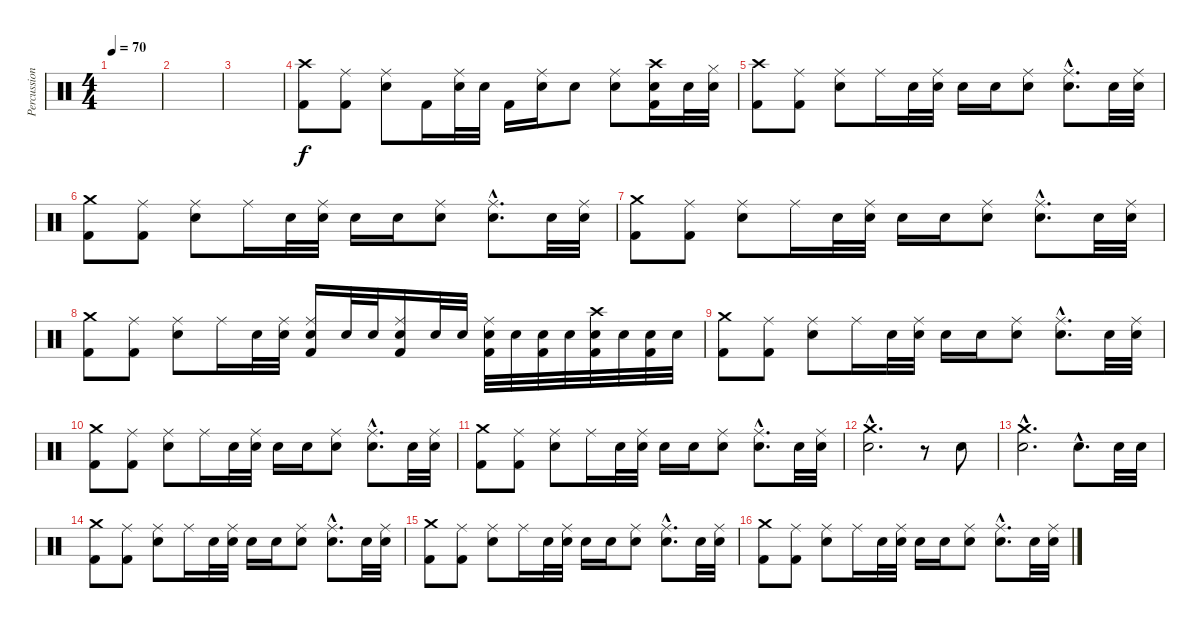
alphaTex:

\track ("Percussion" "Percussion") {instrument percussion}
\staff {score}
\articulation defaults
\ts (4 4)
\tempo 70
\clef neutral
\ks c
|
|
|
("Crash high (hit)" "Kick (hit) 2").8 ("Ride (middle)" "Kick (hit) 2").8 ("Ride (middle)" "Electric Snare (hit)").8 "Kick (hit) 2".16 ("Ride (middle)" "Electric Snare (hit)").32 "Electric Snare (hit)".32 "Kick (hit) 2".16 ("Ride (middle)" "Electric Snare (hit)").16 "Electric Snare (hit)".8 ("Ride (middle)" "Electric Snare (hit)").8 ("Crash high (hit)" "Electric Snare (hit)" "Kick (hit) 2").16 "Electric Snare (hit)".32 ("Hi-Hat (closed)" "Electric Snare (hit)").32 |
("Crash high (hit)" "Kick (hit) 2").8 ("Ride (middle)" "Kick (hit) 2").8 ("Ride (middle)" "Electric Snare (hit)").8 "Ride (middle)".16 "Electric Snare (hit)".32 ("Ride (middle)" "Electric Snare (hit)").32 "Electric Snare (hit)".16 "Electric Snare (hit)".16 ("Ride (middle)" "Electric Snare (hit)").8 ("Ride (middle)"{hac} "Electric Snare (hit)"{hac}).8{d} "Electric Snare (hit)".32 ("Ride (middle)" "Electric Snare (hit)").32 |
("Crash medium (hit)" "Kick (hit) 2").8 ("Ride (middle)" "Kick (hit) 2").8 ("Ride (middle)" "Electric Snare (hit)").8 "Ride (middle)".16 "Electric Snare (hit)".32 ("Ride (middle)" "Electric Snare (hit)").32 "Electric Snare (hit)".16 "Electric Snare (hit)".16 ("Ride (middle)" "Electric Snare (hit)").8 ("Ride (middle)"{hac} "Electric Snare (hit)"{hac}).8{d} "Electric Snare (hit)".32 ("Ride (middle)" "Electric Snare (hit)").32 |
("Crash medium (hit)" "Kick (hit) 2").8 ("Ride (middle)" "Kick (hit) 2").8 ("Ride (middle)" "Electric Snare (hit)").8 "Ride (middle)".16 "Electric Snare (hit)".32 ("Ride (middle)" "Electric Snare (hit)").32 "Electric Snare (hit)".16 "Electric Snare (hit)".16 ("Ride (middle)" "Electric Snare (hit)").8 ("Ride (middle)"{hac} "Electric Snare (hit)"{hac}).8{d} "Electric Snare (hit)".32 ("Ride (middle)" "Electric Snare (hit)").32 |
("Crash medium (hit)" "Kick (hit) 2").8 ("Ride (middle)" "Kick (hit) 2").8 ("Ride (middle)" "Electric Snare (hit)").8 "Ride (middle)".16 "Electric Snare (hit)".32 ("Ride (middle)" "Electric Snare (hit)").32 ("Ride (middle)" "Electric Snare (hit)" "Kick (hit) 2").16 "Electric Snare (hit)".32 "Electric Snare (hit)".32 ("Ride (middle)" "Electric Snare (hit)" "Kick (hit) 2").16 "Electric Snare (hit)".32 "Electric Snare (hit)".32 ("Ride (middle)" "Electric Snare (hit)" "Kick (hit) 2").32 "Electric Snare (hit)".32 ("Electric Snare (hit)" "Kick (hit) 2").32 "Electric Snare (hit)".32 ("Crash high (hit)" "Electric Snare (hit)" "Kick (hit) 2").32 "Electric Snare (hit)".32 ("Electric Snare (hit)" "Kick (hit) 2").32 "Electric Snare (hit)".32 |
("Crash medium (hit)" "Kick (hit) 2").8 ("Ride (middle)" "Kick (hit) 2").8 ("Ride (middle)" "Electric Snare (hit)").8 "Ride (middle)".16 "Electric Snare (hit)".32 ("Ride (middle)" "Electric Snare (hit)").32 "Electric Snare (hit)".16 "Electric Snare (hit)".16 ("Ride (middle)" "Electric Snare (hit)").8 ("Ride (middle)"{hac} "Electric Snare (hit)"{hac}).8{d} "Electric Snare (hit)".32 ("Ride (middle)" "Electric Snare (hit)").32 |
("Crash medium (hit)" "Kick (hit) 2").8 ("Ride (middle)" "Kick (hit) 2").8 ("Ride (middle)" "Electric Snare (hit)").8 "Ride (middle)".16 "Electric Snare (hit)".32 ("Ride (middle)" "Electric Snare (hit)").32 "Electric Snare (hit)".16 "Electric Snare (hit)".16 ("Ride (middle)" "Electric Snare (hit)").8 ("Ride (middle)"{hac} "Electric Snare (hit)"{hac}).8{d} "Electric Snare (hit)".32 ("Ride (middle)" "Electric Snare (hit)").32 |
("Crash medium (hit)" "Kick (hit) 2").8 ("Ride (middle)" "Kick (hit) 2").8 ("Ride (middle)" "Electric Snare (hit)").8 "Ride (middle)".16 "Electric Snare (hit)".32 ("Ride (middle)" "Electric Snare (hit)").32 "Electric Snare (hit)".16 "Electric Snare (hit)".16 ("Ride (middle)" "Electric Snare (hit)").8 ("Ride (middle)"{hac} "Electric Snare (hit)"{hac}).8{d} "Electric Snare (hit)".32 ("Ride (middle)" "Electric Snare (hit)").32 |
("Crash medium (hit)"{hac} "Electric Snare (hit)"{hac}).2{d} r.8 "Electric Snare (hit)".8 |
("Crash medium (hit)"{hac} "Electric Snare (hit)"{hac}).2{d} "Electric Snare (hit)"{hac}.8{d} "Electric Snare (hit)".32 "Electric Snare (hit)".32 |
("Crash medium (hit)" "Kick (hit) 2").8 ("Ride (middle)" "Kick (hit) 2").8 ("Ride (middle)" "Electric Snare (hit)").8 "Ride (middle)".16 "Electric Snare (hit)".32 ("Ride (middle)" "Electric Snare (hit)").32 "Electric Snare (hit)".16 "Electric Snare (hit)".16 ("Ride (middle)" "Electric Snare (hit)").8 ("Ride (middle)"{hac} "Electric Snare (hit)"{hac}).8{d} "Electric Snare (hit)".32 ("Ride (middle)" "Electric Snare (hit)").32 |
("Crash medium (hit)" "Kick (hit) 2").8 ("Ride (middle)" "Kick (hit) 2").8 ("Ride (middle)" "Electric Snare (hit)").8 "Ride (middle)".16 "Electric Snare (hit)".32 ("Ride (middle)" "Electric Snare (hit)").32 "Electric Snare (hit)".16 "Electric Snare (hit)".16 ("Ride (middle)" "Electric Snare (hit)").8 ("Ride (middle)"{hac} "Electric Snare (hit)"{hac}).8{d} "Electric Snare (hit)".32 ("Ride (middle)" "Electric Snare (hit)").32 |
("Crash medium (hit)" "Kick (hit) 2").8 ("Ride (middle)" "Kick (hit) 2").8 ("Ride (middle)" "Electric Snare (hit)").8 "Ride (middle)".16 "Electric Snare (hit)".32 ("Ride (middle)" "Electric Snare (hit)").32 "Electric Snare (hit)".16 "Electric Snare (hit)".16 ("Ride (middle)" "Electric Snare (hit)").8 ("Ride (middle)"{hac} "Electric Snare (hit)"{hac}).8{d} "Electric Snare (hit)".32 ("Ride (middle)" "Electric Snare (hit)").32
